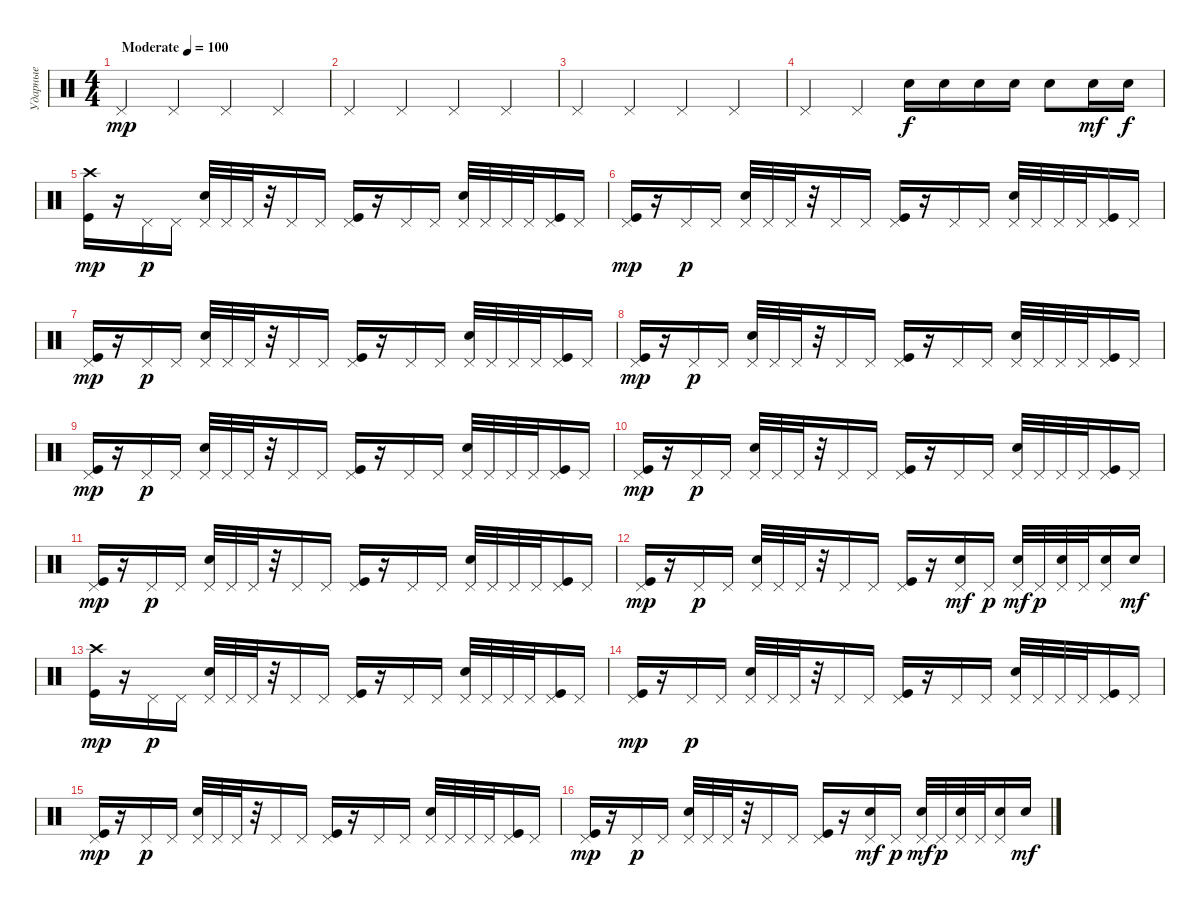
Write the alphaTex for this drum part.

\track ("Ударные" "Ударные") {instrument percussion}
\staff {score}
\articulation defaults
\ts (4 4)
\tempo (100 "Moderate")
\clef neutral
\ks c "Pedal Hi-Hat (hit)".4{dy mp} "Pedal Hi-Hat (hit)".4 "Pedal Hi-Hat (hit)".4 "Pedal Hi-Hat (hit)".4
|
"Pedal Hi-Hat (hit)".4 "Pedal Hi-Hat (hit)".4 "Pedal Hi-Hat (hit)".4 "Pedal Hi-Hat (hit)".4 |
"Pedal Hi-Hat (hit)".4 "Pedal Hi-Hat (hit)".4 "Pedal Hi-Hat (hit)".4 "Pedal Hi-Hat (hit)".4 |
"Pedal Hi-Hat (hit)".4 "Pedal Hi-Hat (hit)".4 "Electric Snare (hit)".16{dy f} "Electric Snare (hit)".16 "Electric Snare (hit)".16 "Electric Snare (hit)".16 "Snare (hit) 2".8 "Electric Snare (hit)".16{dy mf} "Snare (hit) 2".16{dy f} |
("Crash high (hit)" "Kick (hit)").16{dy mp} r.16 "Pedal Hi-Hat (hit)".16{dy p} "Pedal Hi-Hat (hit)".16 ("Pedal Hi-Hat (hit)" "Snare (hit) 2").32 "Pedal Hi-Hat (hit)".32 "Pedal Hi-Hat (hit)".32 r.32 "Pedal Hi-Hat (hit)".16 "Pedal Hi-Hat (hit)".16 ("Pedal Hi-Hat (hit)" "Kick (hit)").16 r.16 "Pedal Hi-Hat (hit)".16 "Pedal Hi-Hat (hit)".16 ("Pedal Hi-Hat (hit)" "Snare (hit) 2").32 "Pedal Hi-Hat (hit)".32 "Pedal Hi-Hat (hit)".32 "Pedal Hi-Hat (hit)".32 ("Pedal Hi-Hat (hit)" "Kick (hit)").16 "Pedal Hi-Hat (hit)".16 |
("Pedal Hi-Hat (hit)" "Kick (hit)").16{dy mp} r.16 "Pedal Hi-Hat (hit)".16{dy p} "Pedal Hi-Hat (hit)".16 ("Pedal Hi-Hat (hit)" "Snare (hit) 2").32 "Pedal Hi-Hat (hit)".32 "Pedal Hi-Hat (hit)".32 r.32 "Pedal Hi-Hat (hit)".16 "Pedal Hi-Hat (hit)".16 ("Pedal Hi-Hat (hit)" "Kick (hit)").16 r.16 "Pedal Hi-Hat (hit)".16 "Pedal Hi-Hat (hit)".16 ("Pedal Hi-Hat (hit)" "Snare (hit) 2").32 "Pedal Hi-Hat (hit)".32 "Pedal Hi-Hat (hit)".32 "Pedal Hi-Hat (hit)".32 ("Pedal Hi-Hat (hit)" "Kick (hit)").16 "Pedal Hi-Hat (hit)".16 |
("Pedal Hi-Hat (hit)" "Kick (hit)").16{dy mp} r.16 "Pedal Hi-Hat (hit)".16{dy p} "Pedal Hi-Hat (hit)".16 ("Pedal Hi-Hat (hit)" "Snare (hit) 2").32 "Pedal Hi-Hat (hit)".32 "Pedal Hi-Hat (hit)".32 r.32 "Pedal Hi-Hat (hit)".16 "Pedal Hi-Hat (hit)".16 ("Pedal Hi-Hat (hit)" "Kick (hit)").16 r.16 "Pedal Hi-Hat (hit)".16 "Pedal Hi-Hat (hit)".16 ("Pedal Hi-Hat (hit)" "Snare (hit) 2").32 "Pedal Hi-Hat (hit)".32 "Pedal Hi-Hat (hit)".32 "Pedal Hi-Hat (hit)".32 ("Pedal Hi-Hat (hit)" "Kick (hit)").16 "Pedal Hi-Hat (hit)".16 |
("Pedal Hi-Hat (hit)" "Kick (hit)").16{dy mp} r.16 "Pedal Hi-Hat (hit)".16{dy p} "Pedal Hi-Hat (hit)".16 ("Pedal Hi-Hat (hit)" "Snare (hit) 2").32 "Pedal Hi-Hat (hit)".32 "Pedal Hi-Hat (hit)".32 r.32 "Pedal Hi-Hat (hit)".16 "Pedal Hi-Hat (hit)".16 ("Pedal Hi-Hat (hit)" "Kick (hit)").16 r.16 "Pedal Hi-Hat (hit)".16 "Pedal Hi-Hat (hit)".16 ("Pedal Hi-Hat (hit)" "Snare (hit) 2").32 "Pedal Hi-Hat (hit)".32 "Pedal Hi-Hat (hit)".32 "Pedal Hi-Hat (hit)".32 ("Pedal Hi-Hat (hit)" "Kick (hit)").16 "Pedal Hi-Hat (hit)".16 |
("Pedal Hi-Hat (hit)" "Kick (hit)").16{dy mp} r.16 "Pedal Hi-Hat (hit)".16{dy p} "Pedal Hi-Hat (hit)".16 ("Pedal Hi-Hat (hit)" "Snare (hit) 2").32 "Pedal Hi-Hat (hit)".32 "Pedal Hi-Hat (hit)".32 r.32 "Pedal Hi-Hat (hit)".16 "Pedal Hi-Hat (hit)".16 ("Pedal Hi-Hat (hit)" "Kick (hit)").16 r.16 "Pedal Hi-Hat (hit)".16 "Pedal Hi-Hat (hit)".16 ("Pedal Hi-Hat (hit)" "Snare (hit) 2").32 "Pedal Hi-Hat (hit)".32 "Pedal Hi-Hat (hit)".32 "Pedal Hi-Hat (hit)".32 ("Pedal Hi-Hat (hit)" "Kick (hit)").16 "Pedal Hi-Hat (hit)".16 |
("Pedal Hi-Hat (hit)" "Kick (hit)").16{dy mp} r.16 "Pedal Hi-Hat (hit)".16{dy p} "Pedal Hi-Hat (hit)".16 ("Pedal Hi-Hat (hit)" "Snare (hit) 2").32 "Pedal Hi-Hat (hit)".32 "Pedal Hi-Hat (hit)".32 r.32 "Pedal Hi-Hat (hit)".16 "Pedal Hi-Hat (hit)".16 ("Pedal Hi-Hat (hit)" "Kick (hit)").16 r.16 "Pedal Hi-Hat (hit)".16 "Pedal Hi-Hat (hit)".16 ("Pedal Hi-Hat (hit)" "Snare (hit) 2").32 "Pedal Hi-Hat (hit)".32 "Pedal Hi-Hat (hit)".32 "Pedal Hi-Hat (hit)".32 ("Pedal Hi-Hat (hit)" "Kick (hit)").16 "Pedal Hi-Hat (hit)".16 |
("Pedal Hi-Hat (hit)" "Kick (hit)").16{dy mp} r.16 "Pedal Hi-Hat (hit)".16{dy p} "Pedal Hi-Hat (hit)".16 ("Pedal Hi-Hat (hit)" "Snare (hit) 2").32 "Pedal Hi-Hat (hit)".32 "Pedal Hi-Hat (hit)".32 r.32 "Pedal Hi-Hat (hit)".16 "Pedal Hi-Hat (hit)".16 ("Pedal Hi-Hat (hit)" "Kick (hit)").16 r.16 "Pedal Hi-Hat (hit)".16 "Pedal Hi-Hat (hit)".16 ("Pedal Hi-Hat (hit)" "Snare (hit) 2").32 "Pedal Hi-Hat (hit)".32 "Pedal Hi-Hat (hit)".32 "Pedal Hi-Hat (hit)".32 ("Pedal Hi-Hat (hit)" "Kick (hit)").16 "Pedal Hi-Hat (hit)".16 |
("Pedal Hi-Hat (hit)" "Kick (hit)").16{dy mp} r.16 "Pedal Hi-Hat (hit)".16{dy p} "Pedal Hi-Hat (hit)".16 ("Pedal Hi-Hat (hit)" "Snare (hit) 2").32 "Pedal Hi-Hat (hit)".32 "Pedal Hi-Hat (hit)".32 r.32 "Pedal Hi-Hat (hit)".16 "Pedal Hi-Hat (hit)".16 ("Pedal Hi-Hat (hit)" "Kick (hit)").16 r.16 ("Pedal Hi-Hat (hit)" "Snare (hit) 2").16{dy mf} "Pedal Hi-Hat (hit)".16{dy p} ("Pedal Hi-Hat (hit)" "Snare (hit) 2").32{dy mf} "Pedal Hi-Hat (hit)".32{dy p} ("Pedal Hi-Hat (hit)" "Snare (hit) 2").32 "Pedal Hi-Hat (hit)".32 ("Pedal Hi-Hat (hit)" "Snare (hit) 2").16 "Snare (hit) 2".16{dy mf} |
("Crash high (hit)" "Kick (hit)").16{dy mp} r.16 "Pedal Hi-Hat (hit)".16{dy p} "Pedal Hi-Hat (hit)".16 ("Pedal Hi-Hat (hit)" "Snare (hit) 2").32 "Pedal Hi-Hat (hit)".32 "Pedal Hi-Hat (hit)".32 r.32 "Pedal Hi-Hat (hit)".16 "Pedal Hi-Hat (hit)".16 ("Pedal Hi-Hat (hit)" "Kick (hit)").16 r.16 "Pedal Hi-Hat (hit)".16 "Pedal Hi-Hat (hit)".16 ("Pedal Hi-Hat (hit)" "Snare (hit) 2").32 "Pedal Hi-Hat (hit)".32 "Pedal Hi-Hat (hit)".32 "Pedal Hi-Hat (hit)".32 ("Pedal Hi-Hat (hit)" "Kick (hit)").16 "Pedal Hi-Hat (hit)".16 |
("Pedal Hi-Hat (hit)" "Kick (hit)").16{dy mp} r.16 "Pedal Hi-Hat (hit)".16{dy p} "Pedal Hi-Hat (hit)".16 ("Pedal Hi-Hat (hit)" "Snare (hit) 2").32 "Pedal Hi-Hat (hit)".32 "Pedal Hi-Hat (hit)".32 r.32 "Pedal Hi-Hat (hit)".16 "Pedal Hi-Hat (hit)".16 ("Pedal Hi-Hat (hit)" "Kick (hit)").16 r.16 "Pedal Hi-Hat (hit)".16 "Pedal Hi-Hat (hit)".16 ("Pedal Hi-Hat (hit)" "Snare (hit) 2").32 "Pedal Hi-Hat (hit)".32 "Pedal Hi-Hat (hit)".32 "Pedal Hi-Hat (hit)".32 ("Pedal Hi-Hat (hit)" "Kick (hit)").16 "Pedal Hi-Hat (hit)".16 |
("Pedal Hi-Hat (hit)" "Kick (hit)").16{dy mp} r.16 "Pedal Hi-Hat (hit)".16{dy p} "Pedal Hi-Hat (hit)".16 ("Pedal Hi-Hat (hit)" "Snare (hit) 2").32 "Pedal Hi-Hat (hit)".32 "Pedal Hi-Hat (hit)".32 r.32 "Pedal Hi-Hat (hit)".16 "Pedal Hi-Hat (hit)".16 ("Pedal Hi-Hat (hit)" "Kick (hit)").16 r.16 "Pedal Hi-Hat (hit)".16 "Pedal Hi-Hat (hit)".16 ("Pedal Hi-Hat (hit)" "Snare (hit) 2").32 "Pedal Hi-Hat (hit)".32 "Pedal Hi-Hat (hit)".32 "Pedal Hi-Hat (hit)".32 ("Pedal Hi-Hat (hit)" "Kick (hit)").16 "Pedal Hi-Hat (hit)".16 |
("Pedal Hi-Hat (hit)" "Kick (hit)").16{dy mp} r.16 "Pedal Hi-Hat (hit)".16{dy p} "Pedal Hi-Hat (hit)".16 ("Pedal Hi-Hat (hit)" "Snare (hit) 2").32 "Pedal Hi-Hat (hit)".32 "Pedal Hi-Hat (hit)".32 r.32 "Pedal Hi-Hat (hit)".16 "Pedal Hi-Hat (hit)".16 ("Pedal Hi-Hat (hit)" "Kick (hit)").16 r.16 ("Pedal Hi-Hat (hit)" "Snare (hit) 2").16{dy mf} "Pedal Hi-Hat (hit)".16{dy p} ("Pedal Hi-Hat (hit)" "Snare (hit) 2").32{dy mf} "Pedal Hi-Hat (hit)".32{dy p} ("Pedal Hi-Hat (hit)" "Snare (hit) 2").32 "Pedal Hi-Hat (hit)".32 ("Pedal Hi-Hat (hit)" "Snare (hit) 2").16 "Snare (hit) 2".16{dy mf}
